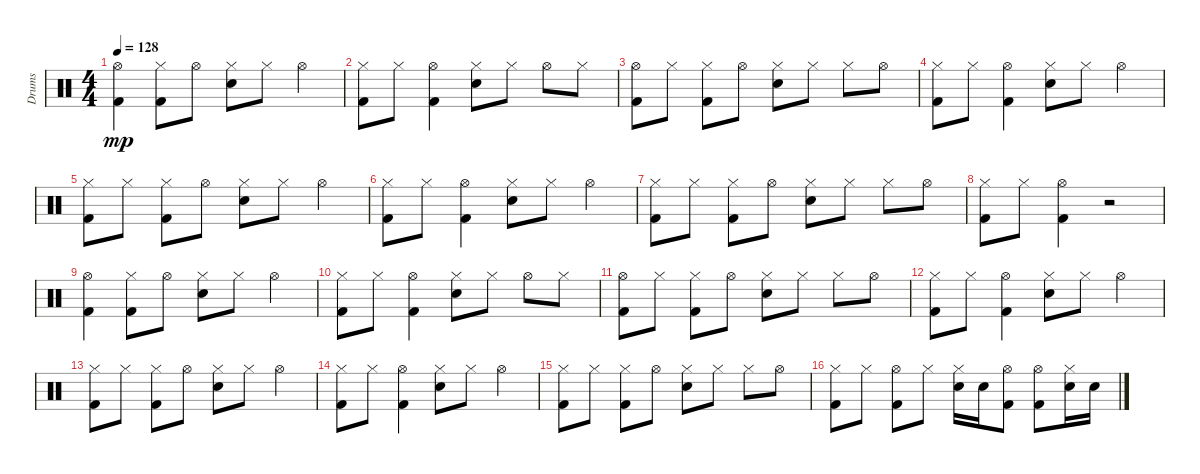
\track ("Drums" "Drums") {instrument percussion}
\staff {score}
\articulation defaults
\ts (4 4)
\tempo 128
\clef neutral
\ks c
("Kick (hit) 2" "Hi-Hat (open)").4{dy mp} ("Kick (hit) 2" "Hi-Hat (closed)").8 "Hi-Hat (open)".8 ("Electric Snare (hit)" "Hi-Hat (closed)").8 "Hi-Hat (closed)".8 "Hi-Hat (open)".4 |
("Kick (hit) 2" "Hi-Hat (closed)").8 "Hi-Hat (closed)".8 ("Kick (hit) 2" "Hi-Hat (open)").4 ("Electric Snare (hit)" "Hi-Hat (closed)").8 "Hi-Hat (closed)".8 "Hi-Hat (open)".8 "Hi-Hat (closed)".8 |
("Kick (hit) 2" "Hi-Hat (open)").8 "Hi-Hat (closed)".8 ("Kick (hit) 2" "Hi-Hat (closed)").8 "Hi-Hat (open)".8 ("Electric Snare (hit)" "Hi-Hat (closed)").8 "Hi-Hat (closed)".8 "Hi-Hat (closed)".8 "Hi-Hat (open)".8 |
("Kick (hit) 2" "Hi-Hat (closed)").8 "Hi-Hat (closed)".8 ("Kick (hit) 2" "Hi-Hat (open)").4 ("Electric Snare (hit)" "Hi-Hat (closed)").8 "Hi-Hat (closed)".8 "Hi-Hat (open)".4 |
("Kick (hit) 2" "Hi-Hat (closed)").8 "Hi-Hat (closed)".8 ("Kick (hit) 2" "Hi-Hat (closed)").8 "Hi-Hat (open)".8 ("Electric Snare (hit)" "Hi-Hat (closed)").8 "Hi-Hat (closed)".8 "Hi-Hat (open)".4 |
("Kick (hit) 2" "Hi-Hat (closed)").8 "Hi-Hat (closed)".8 ("Kick (hit) 2" "Hi-Hat (open)").4 ("Electric Snare (hit)" "Hi-Hat (closed)").8 "Hi-Hat (closed)".8 "Hi-Hat (open)".4 |
("Kick (hit) 2" "Hi-Hat (closed)").8 "Hi-Hat (closed)".8 ("Kick (hit) 2" "Hi-Hat (closed)").8 "Hi-Hat (open)".8 ("Electric Snare (hit)" "Hi-Hat (closed)").8 "Hi-Hat (closed)".8 "Hi-Hat (closed)".8 "Hi-Hat (open)".8 |
("Kick (hit) 2" "Hi-Hat (closed)").8 "Hi-Hat (closed)".8 ("Kick (hit) 2" "Hi-Hat (open)").4 r.2 |
("Kick (hit) 2" "Hi-Hat (open)").4 ("Kick (hit) 2" "Hi-Hat (closed)").8 "Hi-Hat (open)".8 ("Electric Snare (hit)" "Hi-Hat (closed)").8 "Hi-Hat (closed)".8 "Hi-Hat (open)".4 |
("Kick (hit) 2" "Hi-Hat (closed)").8 "Hi-Hat (closed)".8 ("Kick (hit) 2" "Hi-Hat (open)").4 ("Electric Snare (hit)" "Hi-Hat (closed)").8 "Hi-Hat (closed)".8 "Hi-Hat (open)".8 "Hi-Hat (closed)".8 |
("Kick (hit) 2" "Hi-Hat (open)").8 "Hi-Hat (closed)".8 ("Kick (hit) 2" "Hi-Hat (closed)").8 "Hi-Hat (open)".8 ("Electric Snare (hit)" "Hi-Hat (closed)").8 "Hi-Hat (closed)".8 "Hi-Hat (closed)".8 "Hi-Hat (open)".8 |
("Kick (hit) 2" "Hi-Hat (closed)").8 "Hi-Hat (closed)".8 ("Kick (hit) 2" "Hi-Hat (open)").4 ("Electric Snare (hit)" "Hi-Hat (closed)").8 "Hi-Hat (closed)".8 "Hi-Hat (open)".4 |
("Kick (hit) 2" "Hi-Hat (closed)").8 "Hi-Hat (closed)".8 ("Kick (hit) 2" "Hi-Hat (closed)").8 "Hi-Hat (open)".8 ("Electric Snare (hit)" "Hi-Hat (closed)").8 "Hi-Hat (closed)".8 "Hi-Hat (open)".4 |
("Kick (hit) 2" "Hi-Hat (closed)").8 "Hi-Hat (closed)".8 ("Kick (hit) 2" "Hi-Hat (open)").4 ("Electric Snare (hit)" "Hi-Hat (closed)").8 "Hi-Hat (closed)".8 "Hi-Hat (open)".4 |
("Kick (hit) 2" "Hi-Hat (closed)").8 "Hi-Hat (closed)".8 ("Kick (hit) 2" "Hi-Hat (closed)").8 "Hi-Hat (open)".8 ("Electric Snare (hit)" "Hi-Hat (closed)").8 "Hi-Hat (closed)".8 "Hi-Hat (closed)".8 "Hi-Hat (open)".8 |
("Kick (hit) 2" "Hi-Hat (closed)").8 "Hi-Hat (closed)".8 ("Kick (hit) 2" "Hi-Hat (open)").8 "Hi-Hat (closed)".8 ("Electric Snare (hit)" "Hi-Hat (closed)").16 "Electric Snare (hit)".16 ("Kick (hit) 2" "Hi-Hat (open)").8 ("Kick (hit) 2" "Hi-Hat (open)").8 ("Electric Snare (hit)" "Hi-Hat (closed)").16 "Electric Snare (hit)".16
